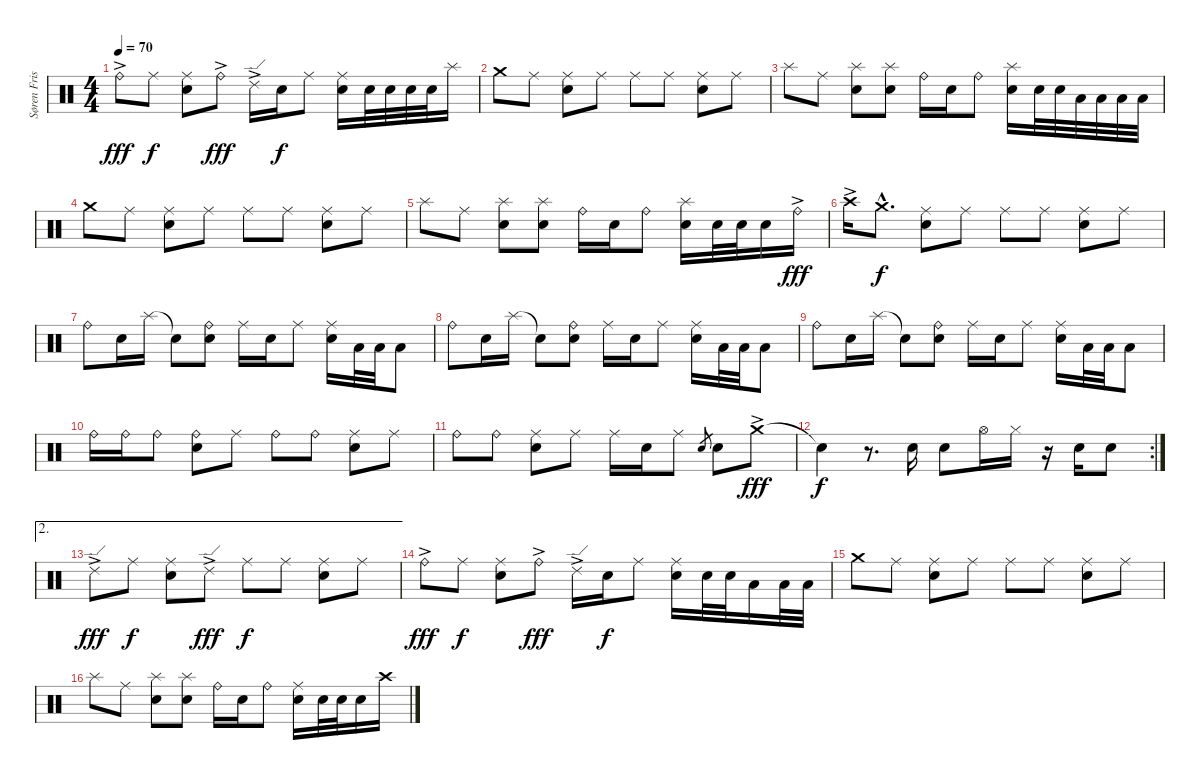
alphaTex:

\track ("Søren Fris (Drums)" "Søren Fris") {instrument percussion}
\staff {score}
\articulation defaults
\ts (4 4)
\tempo 70
\clef neutral
\ks c "Ride (bell)"{ac}.8{dy fff} "Ride (middle)".8{dy f}
("Ride (middle)" "Snare (hit) 2").8 "Ride (bell)"{ac}.8{dy fff} "Ride (edge) 2"{ac}.16 "Snare (hit) 2".16{dy f} "Ride (middle)".8 ("Ride (middle)" "Snare (hit) 2").16 "Snare (hit) 2".32 "Snare (hit) 2".32 "Electric Snare (hit)".32 "Electric Snare (hit)".32 "Splash (hit)".16 |
"Crash medium (hit)".8 "Ride (middle)".8 ("Ride (middle)" "Snare (hit) 2").8 "Ride (middle)".8 "Ride (middle)".8 "Ride (middle)".8 ("Ride (middle)" "Snare (hit) 2").8 "Ride (middle)".8 |
"Splash (hit)".8 "Ride (middle)".8 ("Splash (hit)" "Snare (hit) 2").8 ("Splash (hit)" "Snare (hit) 2").8 "Ride (bell)".16 "Snare (hit) 2".16 "Ride (bell)".8 ("Splash (hit)" "Snare (hit) 2").16 "Electric Snare (hit)".32 "Electric Snare (hit)".32 "Low Tom (hit)".32 "Low Tom (hit)".32 "Low Tom (hit)".32 "Low Tom (hit)".32 |
"Crash medium (hit)".8 "Ride (middle)".8 ("Ride (middle)" "Snare (hit) 2").8 "Ride (middle)".8 "Ride (middle)".8 "Ride (middle)".8 ("Ride (middle)" "Snare (hit) 2").8 "Ride (middle)".8 |
"Splash (hit)".8 "Ride (middle)".8 ("Splash (hit)" "Snare (hit) 2").8 ("Splash (hit)" "Snare (hit) 2").8 "Ride (bell)".16 "Snare (hit) 2".16 "Ride (bell)".8 ("Splash (hit)" "Snare (hit) 2").16 "Snare (hit) 2".32 "Snare (hit) 2".32 "Snare (hit) 2".16 "Ride (bell)"{ac}.16{dy fff} |
"Crash high (hit)"{ac}.16 "Crash medium (hit)"{hac}.8{d dy f} ("Ride (middle)" "Snare (hit) 2").8 "Ride (middle)".8 "Ride (middle)".8 "Ride (middle)".8 ("Snare (hit) 2" "Ride (middle)").8 "Ride (middle)".8 |
"Ride (bell)".8 "Snare (hit) 2".16 "Splash (hit)".16 "Snare (hit)"{t}.8 ("Ride (bell)" "Snare (hit) 2").8 "Ride (middle)".16 "Snare (hit) 2".16 "Ride (middle)".8 ("Ride (middle)" "Snare (hit) 2").16 "Low Tom (hit)".32 "Low Tom (hit)".32 "Low Tom (hit)".8 |
"Ride (bell)".8 "Snare (hit) 2".16 "Splash (hit)".16 "Snare (hit)"{t}.8 ("Ride (bell)" "Snare (hit) 2").8 "Ride (middle)".16 "Snare (hit) 2".16 "Ride (middle)".8 ("Ride (middle)" "Snare (hit) 2").16 "Low Tom (hit)".32 "Low Tom (hit)".32 "Low Tom (hit)".8 |
"Ride (bell)".8 "Snare (hit) 2".16 "Splash (hit)".16 "Snare (hit)"{t}.8 ("Ride (bell)" "Snare (hit) 2").8 "Ride (middle)".16 "Snare (hit) 2".16 "Ride (middle)".8 ("Ride (middle)" "Snare (hit) 2").16 "Low Tom (hit)".32 "Low Tom (hit)".32 "Low Tom (hit)".8 |
"Ride (bell)".16 "Ride (bell)".16 "Ride (bell)".8 ("Ride (bell)" "Snare (hit) 2").8 "Ride (middle)".8 "Ride (bell)".8 "Ride (bell)".8 ("Ride (middle)" "Snare (hit) 2").8 "Ride (middle)".8 |
"Ride (bell)".8 "Ride (bell)".8 ("Ride (middle)" "Snare (hit) 2").8 "Ride (middle)".8 "Ride (middle)".16 "Snare (hit) 2".16 "Ride (middle)".8 "Snare (hit) 2".8{gr} "Snare (hit) 2".8 "Crash medium (hit)"{ac}.8{dy fff} |
\rc 2 "Snare (hit)"{t}.4{dy f}
r.8{d} "Snare (hit) 2".16 "Snare (hit) 2".8 "Hi-Hat (open)".16 "Hi-Hat (closed)".16 r.16 "Snare (hit) 2".16 "Snare (hit) 2".8 |
\ae 2 "Ride (edge) 2"{ac}.8{dy fff} "Ride (middle)".8{dy f}
("Ride (middle)" "Snare (hit) 2").8 "Ride (edge) 2"{ac}.8{dy fff} "Ride (middle)".8{dy f} "Ride (middle)".8 ("Ride (middle)" "Snare (hit) 2").8 "Ride (middle)".8 |
"Ride (bell)"{ac}.8{dy fff} "Ride (middle)".8{dy f} ("Ride (middle)" "Snare (hit) 2").8 "Ride (bell)"{ac}.8{dy fff} "Ride (edge) 2"{ac}.16 "Snare (hit) 2".16{dy f} "Ride (middle)".8 ("Ride (middle)" "Snare (hit) 2").16 "Electric Snare (hit)".32 "Electric Snare (hit)".32 "Low Tom (hit)".16 "Low Tom (hit)".32 "Low Tom (hit)".32 |
"Crash medium (hit)".8 "Ride (middle)".8 ("Ride (middle)" "Snare (hit) 2").8 "Ride (middle)".8 "Ride (middle)".8 "Ride (middle)".8 ("Ride (middle)" "Snare (hit) 2").8 "Ride (middle)".8 |
"Splash (hit)".8 "Ride (middle)".8 ("Splash (hit)" "Snare (hit) 2").8 ("Splash (hit)" "Snare (hit) 2").8 "Ride (bell)".16 "Snare (hit) 2".16 "Ride (bell)".8 ("Ride (middle)" "Snare (hit) 2").16 "Snare (hit) 2".32 "Snare (hit) 2".32 "Snare (hit) 2".16 "Crash high (hit)".16
